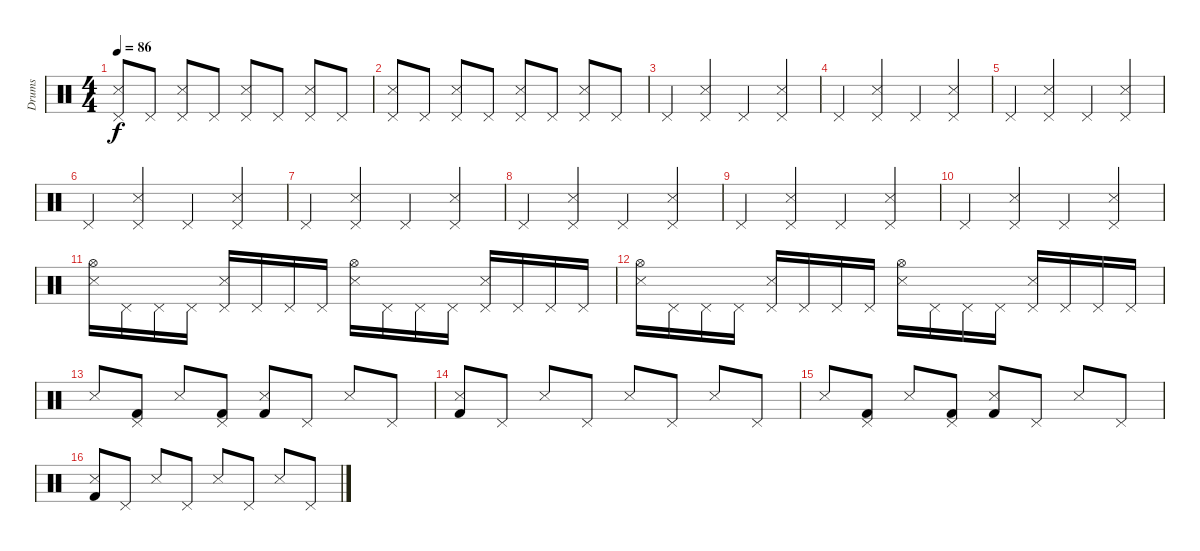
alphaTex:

\track ("Drums" "Drums") {instrument percussion}
\staff {score}
\articulation defaults
\ts (4 4)
\tempo 86
\clef neutral
\ks c
("Snare (side stick) 3" "Pedal Hi-Hat (hit)").8{dy f} "Pedal Hi-Hat (hit)".8 ("Snare (side stick) 3" "Pedal Hi-Hat (hit)").8 "Pedal Hi-Hat (hit)".8 ("Snare (side stick) 3" "Pedal Hi-Hat (hit)").8 "Pedal Hi-Hat (hit)".8 ("Snare (side stick) 3" "Pedal Hi-Hat (hit)").8 "Pedal Hi-Hat (hit)".8 |
("Snare (side stick) 3" "Pedal Hi-Hat (hit)").8 "Pedal Hi-Hat (hit)".8 ("Snare (side stick) 3" "Pedal Hi-Hat (hit)").8 "Pedal Hi-Hat (hit)".8 ("Snare (side stick) 3" "Pedal Hi-Hat (hit)").8 "Pedal Hi-Hat (hit)".8 ("Snare (side stick) 3" "Pedal Hi-Hat (hit)").8 "Pedal Hi-Hat (hit)".8 |
"Pedal Hi-Hat (hit)".4 ("Snare (side stick) 3" "Pedal Hi-Hat (hit)").4 "Pedal Hi-Hat (hit)".4 ("Snare (side stick) 3" "Pedal Hi-Hat (hit)").4 |
"Pedal Hi-Hat (hit)".4 ("Snare (side stick) 3" "Pedal Hi-Hat (hit)").4 "Pedal Hi-Hat (hit)".4 ("Snare (side stick) 3" "Pedal Hi-Hat (hit)").4 |
"Pedal Hi-Hat (hit)".4 ("Snare (side stick) 3" "Pedal Hi-Hat (hit)").4 "Pedal Hi-Hat (hit)".4 ("Snare (side stick) 3" "Pedal Hi-Hat (hit)").4 |
"Pedal Hi-Hat (hit)".4 ("Snare (side stick) 3" "Pedal Hi-Hat (hit)").4 "Pedal Hi-Hat (hit)".4 ("Snare (side stick) 3" "Pedal Hi-Hat (hit)").4 |
"Pedal Hi-Hat (hit)".4 ("Snare (side stick) 3" "Pedal Hi-Hat (hit)").4 "Pedal Hi-Hat (hit)".4 ("Snare (side stick) 3" "Pedal Hi-Hat (hit)").4 |
"Pedal Hi-Hat (hit)".4 ("Snare (side stick) 3" "Pedal Hi-Hat (hit)").4 "Pedal Hi-Hat (hit)".4 ("Snare (side stick) 3" "Pedal Hi-Hat (hit)").4 |
"Pedal Hi-Hat (hit)".4 ("Snare (side stick) 3" "Pedal Hi-Hat (hit)").4 "Pedal Hi-Hat (hit)".4 ("Snare (side stick) 3" "Pedal Hi-Hat (hit)").4 |
"Pedal Hi-Hat (hit)".4 ("Snare (side stick) 3" "Pedal Hi-Hat (hit)").4 "Pedal Hi-Hat (hit)".4 ("Snare (side stick) 3" "Pedal Hi-Hat (hit)").4 |
("Snare (side stick) 3" "Hi-Hat (open)").16 "Pedal Hi-Hat (hit)".16 "Pedal Hi-Hat (hit)".16 "Pedal Hi-Hat (hit)".16 ("Snare (side stick) 3" "Pedal Hi-Hat (hit)").16 "Pedal Hi-Hat (hit)".16 "Pedal Hi-Hat (hit)".16 "Pedal Hi-Hat (hit)".16 ("Snare (side stick) 3" "Hi-Hat (open)").16 "Pedal Hi-Hat (hit)".16 "Pedal Hi-Hat (hit)".16 "Pedal Hi-Hat (hit)".16 ("Snare (side stick) 3" "Pedal Hi-Hat (hit)").16 "Pedal Hi-Hat (hit)".16 "Pedal Hi-Hat (hit)".16 "Pedal Hi-Hat (hit)".16 |
("Snare (side stick) 3" "Hi-Hat (open)").16 "Pedal Hi-Hat (hit)".16 "Pedal Hi-Hat (hit)".16 "Pedal Hi-Hat (hit)".16 ("Snare (side stick) 3" "Pedal Hi-Hat (hit)").16 "Pedal Hi-Hat (hit)".16 "Pedal Hi-Hat (hit)".16 "Pedal Hi-Hat (hit)".16 ("Snare (side stick) 3" "Hi-Hat (open)").16 "Pedal Hi-Hat (hit)".16 "Pedal Hi-Hat (hit)".16 "Pedal Hi-Hat (hit)".16 ("Snare (side stick) 3" "Pedal Hi-Hat (hit)").16 "Pedal Hi-Hat (hit)".16 "Pedal Hi-Hat (hit)".16 "Pedal Hi-Hat (hit)".16 |
"Snare (side stick) 3".8 ("Pedal Hi-Hat (hit)" "Kick (hit) 2").8 "Snare (side stick) 3".8 ("Pedal Hi-Hat (hit)" "Kick (hit) 2").8 ("Snare (side stick) 3" "Kick (hit) 2").8 "Pedal Hi-Hat (hit)".8 "Snare (side stick) 3".8 "Pedal Hi-Hat (hit)".8 |
("Snare (side stick) 3" "Kick (hit) 2").8 "Pedal Hi-Hat (hit)".8 "Snare (side stick) 3".8 "Pedal Hi-Hat (hit)".8 "Snare (side stick) 3".8 "Pedal Hi-Hat (hit)".8 "Snare (side stick) 3".8 "Pedal Hi-Hat (hit)".8 |
"Snare (side stick) 3".8 ("Pedal Hi-Hat (hit)" "Kick (hit) 2").8 "Snare (side stick) 3".8 ("Pedal Hi-Hat (hit)" "Kick (hit) 2").8 ("Snare (side stick) 3" "Kick (hit) 2").8 "Pedal Hi-Hat (hit)".8 "Snare (side stick) 3".8 "Pedal Hi-Hat (hit)".8 |
("Snare (side stick) 3" "Kick (hit) 2").8 "Pedal Hi-Hat (hit)".8 "Snare (side stick) 3".8 "Pedal Hi-Hat (hit)".8 "Snare (side stick) 3".8 "Pedal Hi-Hat (hit)".8 "Snare (side stick) 3".8 "Pedal Hi-Hat (hit)".8
